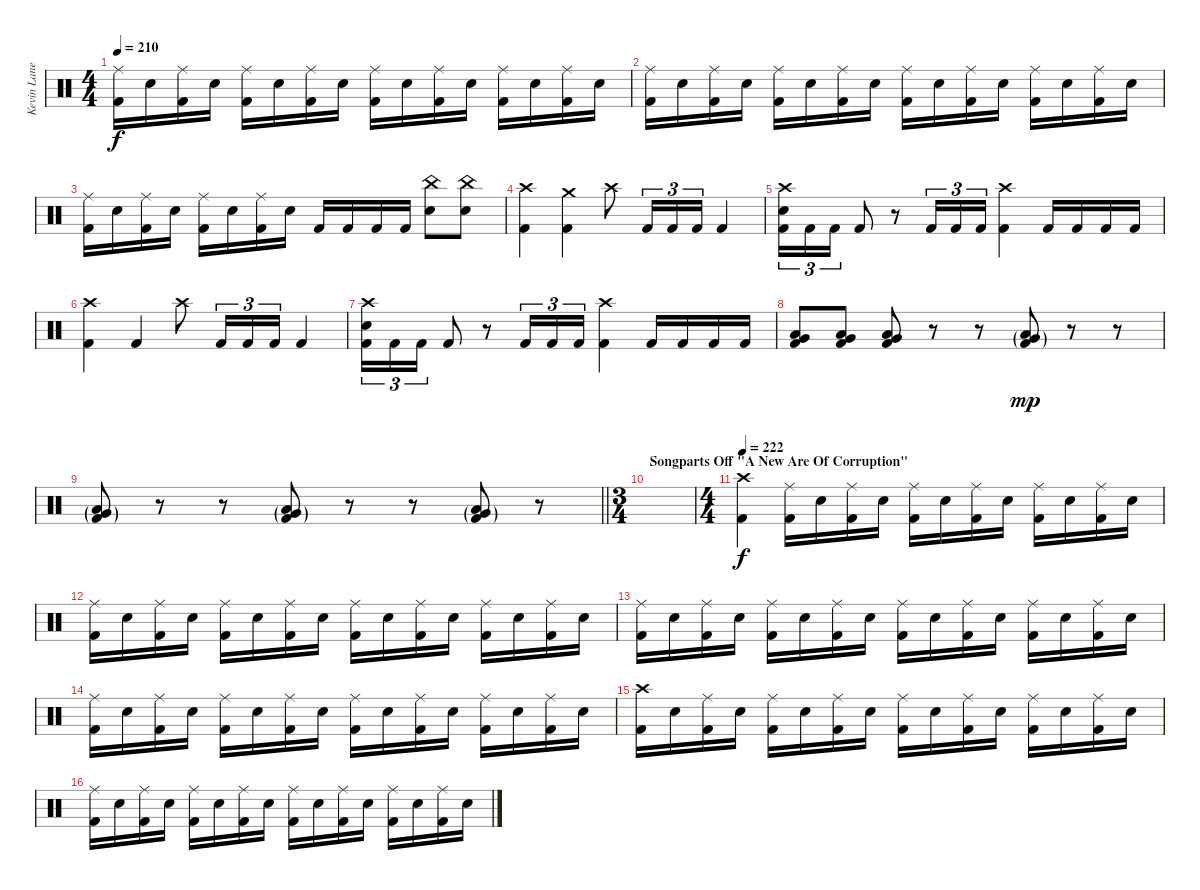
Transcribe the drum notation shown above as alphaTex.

\track ("Kevin Lane (Drums)" "Kevin Lane") {instrument percussion}
\staff {score}
\articulation defaults
\ts (4 4)
\tempo 210
\clef neutral
\ks c
("Ride (middle)" "Kick (hit) 2").16{dy f} "Snare (hit) 2".16 ("Ride (middle)" "Kick (hit) 2").16 "Snare (hit) 2".16 ("Ride (middle)" "Kick (hit) 2").16 "Snare (hit) 2".16 ("Ride (middle)" "Kick (hit) 2").16 "Snare (hit) 2".16 ("Ride (middle)" "Kick (hit) 2").16 "Snare (hit) 2".16 ("Ride (middle)" "Kick (hit) 2").16 "Snare (hit) 2".16 ("Ride (middle)" "Kick (hit) 2").16 "Snare (hit) 2".16 ("Ride (middle)" "Kick (hit) 2").16 "Snare (hit) 2".16 |
("Ride (middle)" "Kick (hit) 2").16 "Snare (hit) 2".16 ("Ride (middle)" "Kick (hit) 2").16 "Snare (hit) 2".16 ("Ride (middle)" "Kick (hit) 2").16 "Snare (hit) 2".16 ("Ride (middle)" "Kick (hit) 2").16 "Snare (hit) 2".16 ("Ride (middle)" "Kick (hit) 2").16 "Snare (hit) 2".16 ("Ride (middle)" "Kick (hit) 2").16 "Snare (hit) 2".16 ("Ride (middle)" "Kick (hit) 2").16 "Snare (hit) 2".16 ("Ride (middle)" "Kick (hit) 2").16 "Snare (hit) 2".16 |
("Ride (middle)" "Kick (hit) 2").16 "Snare (hit) 2".16 ("Ride (middle)" "Kick (hit) 2").16 "Snare (hit) 2".16 ("Ride (middle)" "Kick (hit) 2").16 "Snare (hit) 2".16 ("Ride (middle)" "Kick (hit) 2").16 "Snare (hit) 2".16 "Kick (hit) 2".16 "Kick (hit) 2".16 "Kick (hit) 2".16 "Kick (hit) 2".16 ("China (hit)" "Snare (hit) 2").8 ("China (hit)" "Snare (hit) 2").8 |
("Crash high (hit)" "Kick (hit) 2").4 ("Crash medium (hit)" "Kick (hit) 2").4 "Crash high (hit)".8 "Kick (hit) 2".16{tu (3 2)} "Kick (hit) 2".16{tu (3 2)} "Kick (hit) 2".16{tu (3 2)} "Kick (hit) 2".4 |
("Crash high (hit)" "Snare (hit) 2" "Kick (hit) 2").16{tu (3 2)} "Kick (hit) 2".16{tu (3 2)} "Kick (hit) 2".16{tu (3 2)} "Kick (hit) 2".8 r.8 "Kick (hit) 2".16{tu (3 2)} "Kick (hit) 2".16{tu (3 2)} "Kick (hit) 2".16{tu (3 2)} ("Crash high (hit)" "Kick (hit) 2").4 "Kick (hit) 2".16 "Kick (hit) 2".16 "Kick (hit) 2".16 "Kick (hit) 2".16 |
("Crash high (hit)" "Kick (hit) 2").4 "Kick (hit) 2".4 "Crash high (hit)".8 "Kick (hit) 2".16{tu (3 2)} "Kick (hit) 2".16{tu (3 2)} "Kick (hit) 2".16{tu (3 2)} "Kick (hit) 2".4 |
("Crash high (hit)" "Snare (hit) 2" "Kick (hit) 2").16{tu (3 2)} "Kick (hit) 2".16{tu (3 2)} "Kick (hit) 2".16{tu (3 2)} "Kick (hit) 2".8 r.8 "Kick (hit) 2".16{tu (3 2)} "Kick (hit) 2".16{tu (3 2)} "Kick (hit) 2".16{tu (3 2)} ("Crash high (hit)" "Kick (hit) 2").4 "Kick (hit) 2".16 "Kick (hit) 2".16 "Kick (hit) 2".16 "Kick (hit) 2".16 |
("Low Floor Tom (hit)" "Very Low Tom (hit)" "Kick (hit) 2").8 ("Low Floor Tom (hit)" "Very Low Tom (hit)" "Kick (hit) 2").8 ("Low Floor Tom (hit)" "Very Low Tom (hit)" "Kick (hit) 2").8 r.8 r.8 ("Low Floor Tom (hit)"{g} "Very Low Tom (hit)"{g} "Kick (hit) 2"{g}).8{dy mp} r.8 r.8 |
\barLineRight lightlight
("Low Floor Tom (hit)"{g} "Very Low Tom (hit)"{g} "Kick (hit) 2"{g}).8 r.8 r.8 ("Low Floor Tom (hit)"{g} "Very Low Tom (hit)"{g} "Kick (hit) 2"{g}).8 r.8 r.8 ("Low Floor Tom (hit)"{g} "Very Low Tom (hit)"{g} "Kick (hit) 2"{g}).8 r.8 |
\ts (3 4)
\section ("" "Songparts Off \"A New Are Of Corruption\"")
|
\ts (4 4)
\tempo 222
("Crash high (hit)" "Kick (hit) 2").4{dy f} ("Ride (middle)" "Kick (hit) 2").16 "Snare (hit) 2".16 ("Ride (middle)" "Kick (hit) 2").16 "Snare (hit) 2".16 ("Ride (middle)" "Kick (hit) 2").16 "Snare (hit) 2".16 ("Ride (middle)" "Kick (hit) 2").16 "Snare (hit) 2".16 ("Ride (middle)" "Kick (hit) 2").16 "Snare (hit) 2".16 ("Ride (middle)" "Kick (hit) 2").16 "Snare (hit) 2".16 |
("Ride (middle)" "Kick (hit) 2").16 "Snare (hit) 2".16 ("Ride (middle)" "Kick (hit) 2").16 "Snare (hit) 2".16 ("Ride (middle)" "Kick (hit) 2").16 "Snare (hit) 2".16 ("Ride (middle)" "Kick (hit) 2").16 "Snare (hit) 2".16 ("Ride (middle)" "Kick (hit) 2").16 "Snare (hit) 2".16 ("Ride (middle)" "Kick (hit) 2").16 "Snare (hit) 2".16 ("Ride (middle)" "Kick (hit) 2").16 "Snare (hit) 2".16 ("Ride (middle)" "Kick (hit) 2").16 "Snare (hit) 2".16 |
("Ride (middle)" "Kick (hit) 2").16 "Snare (hit) 2".16 ("Ride (middle)" "Kick (hit) 2").16 "Snare (hit) 2".16 ("Ride (middle)" "Kick (hit) 2").16 "Snare (hit) 2".16 ("Ride (middle)" "Kick (hit) 2").16 "Snare (hit) 2".16 ("Ride (middle)" "Kick (hit) 2").16 "Snare (hit) 2".16 ("Ride (middle)" "Kick (hit) 2").16 "Snare (hit) 2".16 ("Ride (middle)" "Kick (hit) 2").16 "Snare (hit) 2".16 ("Ride (middle)" "Kick (hit) 2").16 "Snare (hit) 2".16 |
("Ride (middle)" "Kick (hit) 2").16 "Snare (hit) 2".16 ("Ride (middle)" "Kick (hit) 2").16 "Snare (hit) 2".16 ("Ride (middle)" "Kick (hit) 2").16 "Snare (hit) 2".16 ("Ride (middle)" "Kick (hit) 2").16 "Snare (hit) 2".16 ("Ride (middle)" "Kick (hit) 2").16 "Snare (hit) 2".16 ("Ride (middle)" "Kick (hit) 2").16 "Snare (hit) 2".16 ("Ride (middle)" "Kick (hit) 2").16 "Snare (hit) 2".16 ("Ride (middle)" "Kick (hit) 2").16 "Snare (hit) 2".16 |
("Crash high (hit)" "Kick (hit) 2").16 "Snare (hit) 2".16 ("Ride (middle)" "Kick (hit) 2").16 "Snare (hit) 2".16 ("Ride (middle)" "Kick (hit) 2").16 "Snare (hit) 2".16 ("Ride (middle)" "Kick (hit) 2").16 "Snare (hit) 2".16 ("Ride (middle)" "Kick (hit) 2").16 "Snare (hit) 2".16 ("Ride (middle)" "Kick (hit) 2").16 "Snare (hit) 2".16 ("Ride (middle)" "Kick (hit) 2").16 "Snare (hit) 2".16 ("Ride (middle)" "Kick (hit) 2").16 "Snare (hit) 2".16 |
("Ride (middle)" "Kick (hit) 2").16 "Snare (hit) 2".16 ("Ride (middle)" "Kick (hit) 2").16 "Snare (hit) 2".16 ("Ride (middle)" "Kick (hit) 2").16 "Snare (hit) 2".16 ("Ride (middle)" "Kick (hit) 2").16 "Snare (hit) 2".16 ("Ride (middle)" "Kick (hit) 2").16 "Snare (hit) 2".16 ("Ride (middle)" "Kick (hit) 2").16 "Snare (hit) 2".16 ("Ride (middle)" "Kick (hit) 2").16 "Snare (hit) 2".16 ("Ride (middle)" "Kick (hit) 2").16 "Snare (hit) 2".16
